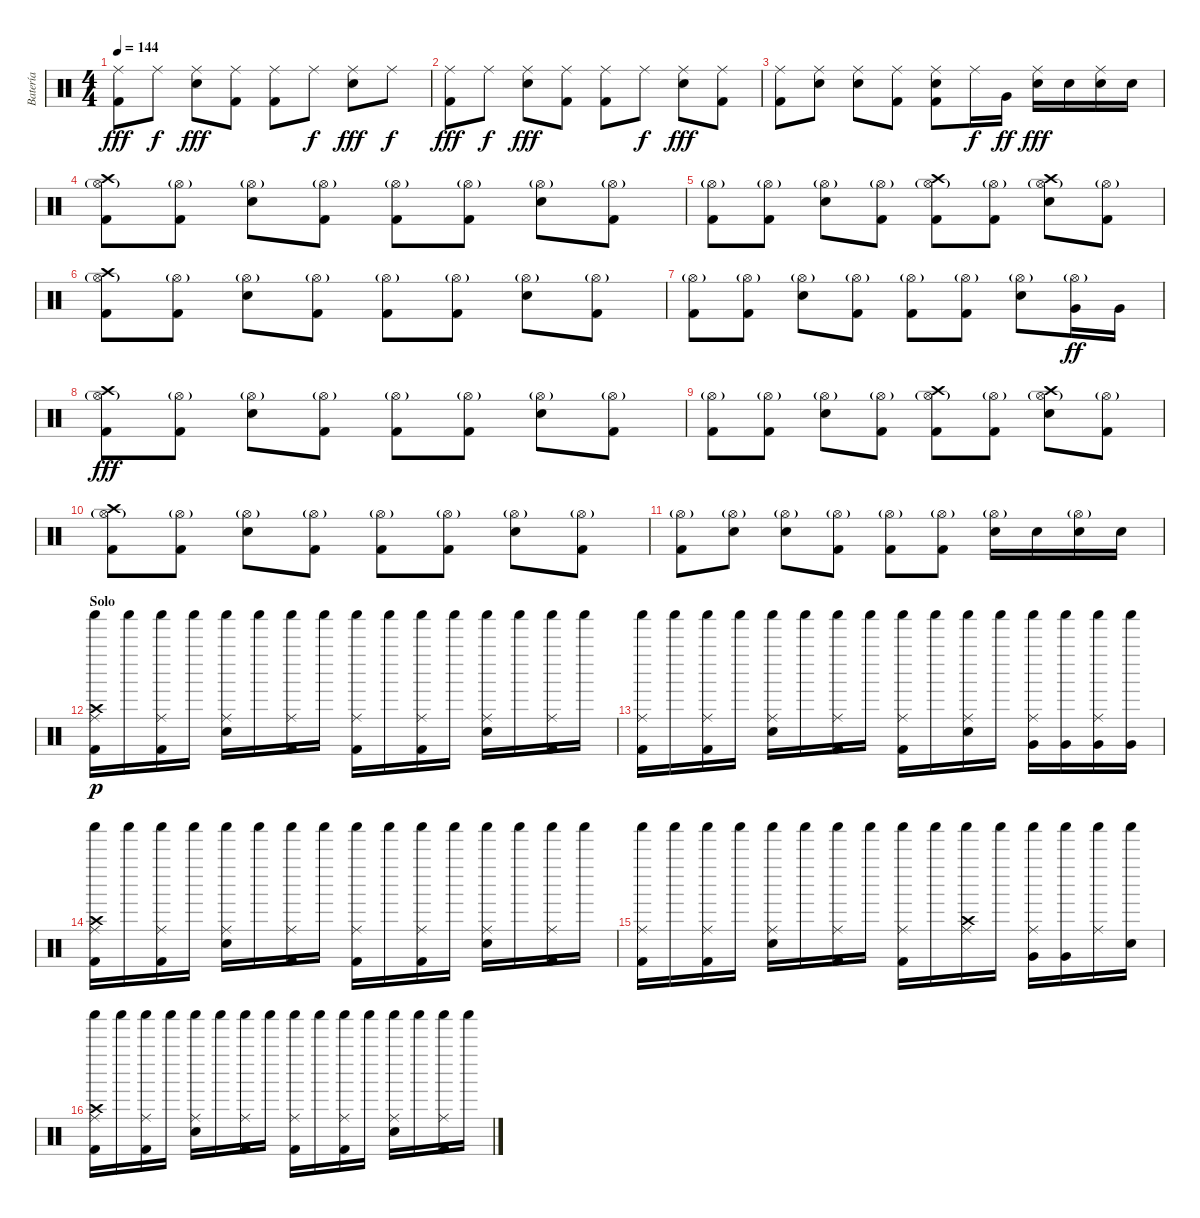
\track ("Batería" "Batería") {instrument percussion}
\staff {score}
\articulation defaults
\ts (4 4)
\tempo 144
\clef neutral
\ks c
("Ride (middle)" "Kick (hit) 2").8{dy fff} "Ride (middle)".8{dy f} ("Ride (middle)" "Electric Snare (hit)").8{dy fff} ("Ride (middle)" "Kick (hit) 2").8 ("Ride (middle)" "Kick (hit) 2").8 "Ride (middle)".8{dy f} ("Ride (middle)" "Electric Snare (hit)").8{dy fff} "Ride (middle)".8{dy f} |
("Ride (middle)" "Kick (hit) 2").8{dy fff} "Ride (middle)".8{dy f} ("Ride (middle)" "Electric Snare (hit)").8{dy fff} ("Ride (middle)" "Kick (hit) 2").8 ("Ride (middle)" "Kick (hit) 2").8 "Ride (middle)".8{dy f} ("Ride (middle)" "Electric Snare (hit)").8{dy fff} ("Ride (middle)" "Kick (hit) 2").8 |
("Ride (middle)" "Kick (hit) 2").8 ("Ride (middle)" "Electric Snare (hit)").8 ("Ride (middle)" "Electric Snare (hit)").8 ("Ride (middle)" "Kick (hit) 2").8 ("Ride (middle)" "Electric Snare (hit)" "Kick (hit) 2").8 "Ride (middle)".16{dy f} "Very Low Tom (hit)".16{dy ff} ("Ride (middle)" "Electric Snare (hit)").16{dy fff} "Electric Snare (hit)".16 ("Ride (middle)" "Electric Snare (hit)").16 "Electric Snare (hit)".16 |
("Hi-Hat (open)"{g} "Kick (hit) 2" "Crash high (hit)").8 ("Hi-Hat (open)"{g} "Kick (hit) 2").8 ("Hi-Hat (open)"{g} "Electric Snare (hit)").8 ("Hi-Hat (open)"{g} "Kick (hit) 2").8 ("Hi-Hat (open)"{g} "Kick (hit) 2").8 ("Hi-Hat (open)"{g} "Kick (hit) 2").8 ("Hi-Hat (open)"{g} "Electric Snare (hit)").8 ("Hi-Hat (open)"{g} "Kick (hit) 2").8 |
("Hi-Hat (open)"{g} "Kick (hit) 2").8 ("Hi-Hat (open)"{g} "Kick (hit) 2").8 ("Hi-Hat (open)"{g} "Electric Snare (hit)").8 ("Hi-Hat (open)"{g} "Kick (hit) 2").8 ("Hi-Hat (open)"{g} "Kick (hit) 2" "Crash high (hit)").8 ("Hi-Hat (open)"{g} "Kick (hit) 2").8 ("Hi-Hat (open)"{g} "Electric Snare (hit)" "Crash high (hit)").8 ("Hi-Hat (open)"{g} "Kick (hit) 2").8 |
("Hi-Hat (open)"{g} "Kick (hit) 2" "Crash high (hit)").8 ("Hi-Hat (open)"{g} "Kick (hit) 2").8 ("Hi-Hat (open)"{g} "Electric Snare (hit)").8 ("Hi-Hat (open)"{g} "Kick (hit) 2").8 ("Hi-Hat (open)"{g} "Kick (hit) 2").8 ("Hi-Hat (open)"{g} "Kick (hit) 2").8 ("Hi-Hat (open)"{g} "Electric Snare (hit)").8 ("Hi-Hat (open)"{g} "Kick (hit) 2").8 |
("Hi-Hat (open)"{g} "Kick (hit) 2").8 ("Hi-Hat (open)"{g} "Kick (hit) 2").8 ("Hi-Hat (open)"{g} "Electric Snare (hit)").8 ("Hi-Hat (open)"{g} "Kick (hit) 2").8 ("Hi-Hat (open)"{g} "Kick (hit) 2").8 ("Hi-Hat (open)"{g} "Kick (hit) 2").8 ("Hi-Hat (open)"{g} "Electric Snare (hit)").8 ("Hi-Hat (open)"{g} "Very Low Tom (hit)").16{dy ff} "Very Low Tom (hit)".16 |
("Hi-Hat (open)"{g} "Kick (hit) 2" "Crash high (hit)").8{dy fff} ("Hi-Hat (open)"{g} "Kick (hit) 2").8 ("Hi-Hat (open)"{g} "Electric Snare (hit)").8 ("Hi-Hat (open)"{g} "Kick (hit) 2").8 ("Hi-Hat (open)"{g} "Kick (hit) 2").8 ("Hi-Hat (open)"{g} "Kick (hit) 2").8 ("Hi-Hat (open)"{g} "Electric Snare (hit)").8 ("Hi-Hat (open)"{g} "Kick (hit) 2").8 |
("Hi-Hat (open)"{g} "Kick (hit) 2").8 ("Hi-Hat (open)"{g} "Kick (hit) 2").8 ("Hi-Hat (open)"{g} "Electric Snare (hit)").8 ("Hi-Hat (open)"{g} "Kick (hit) 2").8 ("Hi-Hat (open)"{g} "Kick (hit) 2" "Crash high (hit)").8 ("Hi-Hat (open)"{g} "Kick (hit) 2").8 ("Hi-Hat (open)"{g} "Electric Snare (hit)" "Crash high (hit)").8 ("Hi-Hat (open)"{g} "Kick (hit) 2").8 |
("Hi-Hat (open)"{g} "Kick (hit) 2" "Crash high (hit)").8 ("Hi-Hat (open)"{g} "Kick (hit) 2").8 ("Hi-Hat (open)"{g} "Electric Snare (hit)").8 ("Hi-Hat (open)"{g} "Kick (hit) 2").8 ("Hi-Hat (open)"{g} "Kick (hit) 2").8 ("Hi-Hat (open)"{g} "Kick (hit) 2").8 ("Hi-Hat (open)"{g} "Electric Snare (hit)").8 ("Hi-Hat (open)"{g} "Kick (hit) 2").8 |
("Hi-Hat (open)"{g} "Kick (hit) 2").8 ("Hi-Hat (open)"{g} "Electric Snare (hit)").8 ("Hi-Hat (open)"{g} "Electric Snare (hit)").8 ("Hi-Hat (open)"{g} "Kick (hit) 2").8 ("Hi-Hat (open)"{g} "Kick (hit) 2").8 ("Hi-Hat (open)"{g} "Kick (hit) 2").8 ("Hi-Hat (open)"{g} "Electric Snare (hit)").16 "Electric Snare (hit)".16 ("Hi-Hat (open)"{g} "Electric Snare (hit)").16 "Electric Snare (hit)".16 |
\section ("" "Solo")
("Ride (middle)" "Kick (hit) 2" "Crash high (hit)" "Shaker (hit)").16{dy p} "Shaker (hit)".16 ("Ride (middle)" "Kick (hit) 2" "Shaker (hit)").16 "Shaker (hit)".16 ("Ride (middle)" "Electric Snare (hit)" "Shaker (hit)").16 "Shaker (hit)".16 ("Ride (middle)" "Kick (hit) 2" "Shaker (hit)").16 "Shaker (hit)".16 ("Ride (middle)" "Kick (hit) 2" "Shaker (hit)").16 "Shaker (hit)".16 ("Ride (middle)" "Kick (hit) 2" "Shaker (hit)").16 "Shaker (hit)".16 ("Ride (middle)" "Electric Snare (hit)" "Shaker (hit)").16 "Shaker (hit)".16 ("Ride (middle)" "Kick (hit) 2" "Shaker (hit)").16 "Shaker (hit)".16 |
("Ride (middle)" "Kick (hit) 2" "Shaker (hit)").16 "Shaker (hit)".16 ("Ride (middle)" "Kick (hit) 2" "Shaker (hit)").16 "Shaker (hit)".16 ("Ride (middle)" "Electric Snare (hit)" "Shaker (hit)").16 "Shaker (hit)".16 ("Ride (middle)" "Kick (hit) 2" "Shaker (hit)").16 "Shaker (hit)".16 ("Ride (middle)" "Kick (hit) 2" "Shaker (hit)").16 "Shaker (hit)".16 ("Ride (middle)" "Electric Snare (hit)" "Shaker (hit)").16 "Shaker (hit)".16 ("Ride (middle)" "Very Low Tom (hit)" "Shaker (hit)").16 ("Very Low Tom (hit)" "Shaker (hit)").16 ("Ride (middle)" "Very Low Tom (hit)" "Shaker (hit)").16 ("Very Low Tom (hit)" "Shaker (hit)").16 |
("Ride (middle)" "Kick (hit) 2" "Crash high (hit)" "Shaker (hit)").16 "Shaker (hit)".16 ("Ride (middle)" "Kick (hit) 2" "Shaker (hit)").16 "Shaker (hit)".16 ("Ride (middle)" "Electric Snare (hit)" "Shaker (hit)").16 "Shaker (hit)".16 ("Ride (middle)" "Kick (hit) 2" "Shaker (hit)").16 "Shaker (hit)".16 ("Ride (middle)" "Kick (hit) 2" "Shaker (hit)").16 "Shaker (hit)".16 ("Ride (middle)" "Kick (hit) 2" "Shaker (hit)").16 "Shaker (hit)".16 ("Ride (middle)" "Electric Snare (hit)" "Shaker (hit)").16 "Shaker (hit)".16 ("Ride (middle)" "Kick (hit) 2" "Shaker (hit)").16 "Shaker (hit)".16 |
("Ride (middle)" "Kick (hit) 2" "Shaker (hit)").16 "Shaker (hit)".16 ("Ride (middle)" "Kick (hit) 2" "Shaker (hit)").16 "Shaker (hit)".16 ("Ride (middle)" "Electric Snare (hit)" "Shaker (hit)").16 "Shaker (hit)".16 ("Ride (middle)" "Kick (hit) 2" "Shaker (hit)").16 "Shaker (hit)".16 ("Ride (middle)" "Kick (hit) 2" "Shaker (hit)").16 "Shaker (hit)".16 ("Ride (middle)" "Crash high (hit)" "Shaker (hit)").16 "Shaker (hit)".16 ("Ride (middle)" "Very Low Tom (hit)" "Shaker (hit)").16 ("Very Low Tom (hit)" "Shaker (hit)").16 ("Ride (middle)" "Shaker (hit)").16 ("Electric Snare (hit)" "Shaker (hit)").16 |
("Ride (middle)" "Kick (hit) 2" "Crash high (hit)" "Shaker (hit)").16 "Shaker (hit)".16 ("Ride (middle)" "Kick (hit) 2" "Shaker (hit)").16 "Shaker (hit)".16 ("Ride (middle)" "Electric Snare (hit)" "Shaker (hit)").16 "Shaker (hit)".16 ("Ride (middle)" "Kick (hit) 2" "Shaker (hit)").16 "Shaker (hit)".16 ("Ride (middle)" "Kick (hit) 2" "Shaker (hit)").16 "Shaker (hit)".16 ("Ride (middle)" "Kick (hit) 2" "Shaker (hit)").16 "Shaker (hit)".16 ("Ride (middle)" "Electric Snare (hit)" "Shaker (hit)").16 "Shaker (hit)".16 ("Ride (middle)" "Kick (hit) 2" "Shaker (hit)").16 "Shaker (hit)".16
